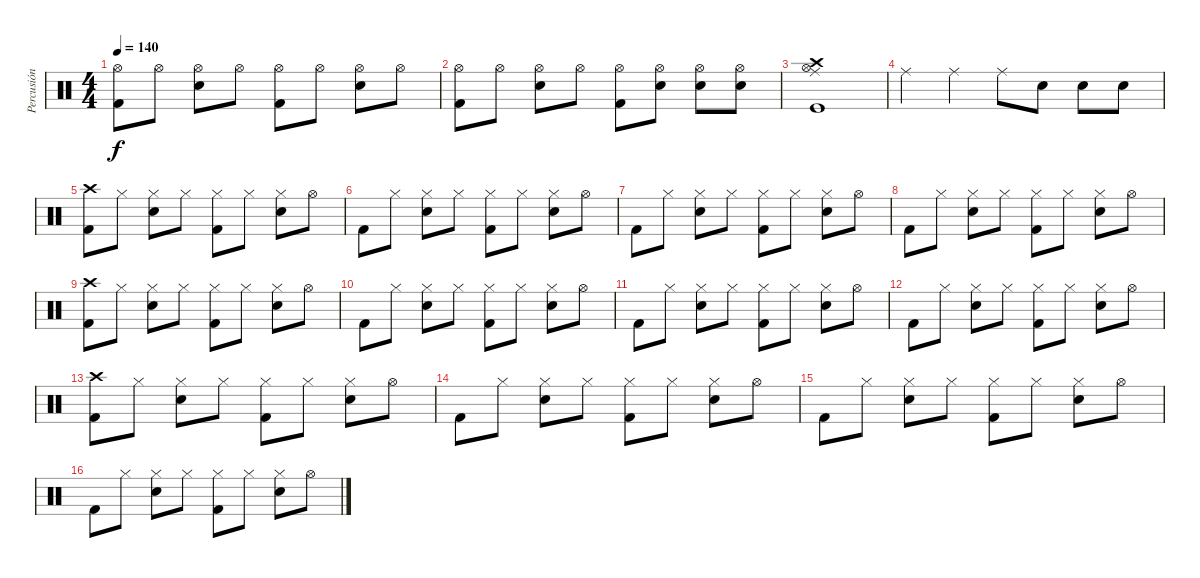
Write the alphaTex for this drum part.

\track ("Percusión" "Percusión") {instrument percussion}
\staff {score}
\articulation defaults
\ts (4 4)
\tempo 140
\clef neutral
\ks c
("Hi-Hat (open)" "Kick (hit) 2").8{dy f} "Hi-Hat (open)".8 ("Hi-Hat (open)" "Electric Snare (hit)").8 "Hi-Hat (open)".8 ("Hi-Hat (open)" "Kick (hit) 2").8 "Hi-Hat (open)".8 ("Hi-Hat (open)" "Electric Snare (hit)").8 "Hi-Hat (open)".8 |
("Hi-Hat (open)" "Kick (hit) 2").8 "Hi-Hat (open)".8 ("Hi-Hat (open)" "Electric Snare (hit)").8 "Hi-Hat (open)".8 ("Hi-Hat (open)" "Kick (hit) 2").8 ("Hi-Hat (open)" "Electric Snare (hit)").8 ("Hi-Hat (open)" "Electric Snare (hit)").8 ("Hi-Hat (open)" "Electric Snare (hit)").8 |
("Kick (hit)" "Ride (middle)" "Crash high (hit)" "Hi-Hat (open)").1 |
"Ride (middle)".4 "Ride (middle)".4 "Ride (middle)".8 "Electric Snare (hit)".8 "Electric Snare (hit)".8 "Electric Snare (hit)".8 |
("Crash high (hit)" "Kick (hit) 2").8 "Hi-Hat (closed)".8 ("Hi-Hat (closed)" "Electric Snare (hit)").8 "Hi-Hat (closed)".8 ("Hi-Hat (closed)" "Kick (hit) 2").8 "Hi-Hat (closed)".8 ("Hi-Hat (closed)" "Electric Snare (hit)").8 "Hi-Hat (open)".8 |
"Kick (hit) 2".8 "Hi-Hat (closed)".8 ("Hi-Hat (closed)" "Electric Snare (hit)").8 "Hi-Hat (closed)".8 ("Hi-Hat (closed)" "Kick (hit) 2").8 "Hi-Hat (closed)".8 ("Hi-Hat (closed)" "Electric Snare (hit)").8 "Hi-Hat (open)".8 |
"Kick (hit) 2".8 "Hi-Hat (closed)".8 ("Hi-Hat (closed)" "Electric Snare (hit)").8 "Hi-Hat (closed)".8 ("Hi-Hat (closed)" "Kick (hit) 2").8 "Hi-Hat (closed)".8 ("Hi-Hat (closed)" "Electric Snare (hit)").8 "Hi-Hat (open)".8 |
"Kick (hit) 2".8 "Hi-Hat (closed)".8 ("Hi-Hat (closed)" "Electric Snare (hit)").8 "Hi-Hat (closed)".8 ("Hi-Hat (closed)" "Kick (hit) 2").8 "Hi-Hat (closed)".8 ("Hi-Hat (closed)" "Electric Snare (hit)").8 "Hi-Hat (open)".8 |
("Crash high (hit)" "Kick (hit) 2").8 "Hi-Hat (closed)".8 ("Hi-Hat (closed)" "Electric Snare (hit)").8 "Hi-Hat (closed)".8 ("Hi-Hat (closed)" "Kick (hit) 2").8 "Hi-Hat (closed)".8 ("Hi-Hat (closed)" "Electric Snare (hit)").8 "Hi-Hat (open)".8 |
"Kick (hit) 2".8 "Hi-Hat (closed)".8 ("Hi-Hat (closed)" "Electric Snare (hit)").8 "Hi-Hat (closed)".8 ("Hi-Hat (closed)" "Kick (hit) 2").8 "Hi-Hat (closed)".8 ("Hi-Hat (closed)" "Electric Snare (hit)").8 "Hi-Hat (open)".8 |
"Kick (hit) 2".8 "Hi-Hat (closed)".8 ("Hi-Hat (closed)" "Electric Snare (hit)").8 "Hi-Hat (closed)".8 ("Hi-Hat (closed)" "Kick (hit) 2").8 "Hi-Hat (closed)".8 ("Hi-Hat (closed)" "Electric Snare (hit)").8 "Hi-Hat (open)".8 |
"Kick (hit) 2".8 "Hi-Hat (closed)".8 ("Hi-Hat (closed)" "Electric Snare (hit)").8 "Hi-Hat (closed)".8 ("Hi-Hat (closed)" "Kick (hit) 2").8 "Hi-Hat (closed)".8 ("Hi-Hat (closed)" "Electric Snare (hit)").8 "Hi-Hat (open)".8 |
("Crash high (hit)" "Kick (hit) 2").8 "Hi-Hat (closed)".8 ("Hi-Hat (closed)" "Electric Snare (hit)").8 "Hi-Hat (closed)".8 ("Hi-Hat (closed)" "Kick (hit) 2").8 "Hi-Hat (closed)".8 ("Hi-Hat (closed)" "Electric Snare (hit)").8 "Hi-Hat (open)".8 |
"Kick (hit) 2".8 "Hi-Hat (closed)".8 ("Hi-Hat (closed)" "Electric Snare (hit)").8 "Hi-Hat (closed)".8 ("Hi-Hat (closed)" "Kick (hit) 2").8 "Hi-Hat (closed)".8 ("Hi-Hat (closed)" "Electric Snare (hit)").8 "Hi-Hat (open)".8 |
"Kick (hit) 2".8 "Hi-Hat (closed)".8 ("Hi-Hat (closed)" "Electric Snare (hit)").8 "Hi-Hat (closed)".8 ("Hi-Hat (closed)" "Kick (hit) 2").8 "Hi-Hat (closed)".8 ("Hi-Hat (closed)" "Electric Snare (hit)").8 "Hi-Hat (open)".8 |
"Kick (hit) 2".8 "Hi-Hat (closed)".8 ("Hi-Hat (closed)" "Electric Snare (hit)").8 "Hi-Hat (closed)".8 ("Hi-Hat (closed)" "Kick (hit) 2").8 "Hi-Hat (closed)".8 ("Hi-Hat (closed)" "Electric Snare (hit)").8 "Hi-Hat (open)".8
